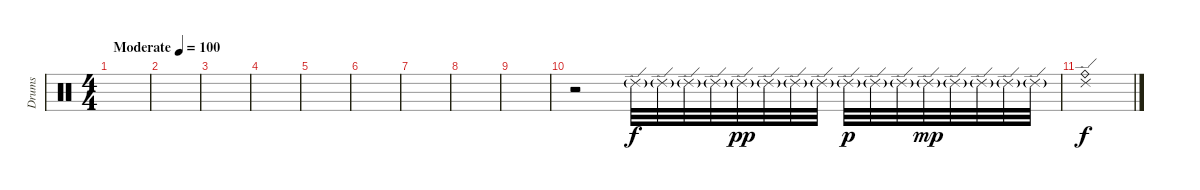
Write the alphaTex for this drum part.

\track ("Drums" "Drums") {instrument percussion}
\staff {score}
\articulation defaults
\ts (4 4)
\tempo (100 "Moderate")
\clef neutral
\ks aminor
|
|
|
|
|
|
|
|
|
r.2 "Ride (edge) 2"{g}.32 "Ride (edge) 2"{g}.32 "Ride (edge) 2"{g}.32 "Ride (edge) 2"{g}.32 "Ride (edge) 2"{g}.32{dy pp} "Ride (edge) 2"{g}.32 "Ride (edge) 2"{g}.32 "Ride (edge) 2"{g}.32 "Ride (edge) 2"{g}.32{dy p} "Ride (edge) 2"{g}.32 "Ride (edge) 2"{g}.32 "Ride (edge) 2"{g}.32{dy mp} "Ride (edge) 2"{g}.32 "Ride (edge) 2"{g}.32 "Ride (edge) 2"{g}.32 "Ride (edge) 2"{g}.32 |
("Ride (edge) 2" "Ride (bell)").1{dy f}
